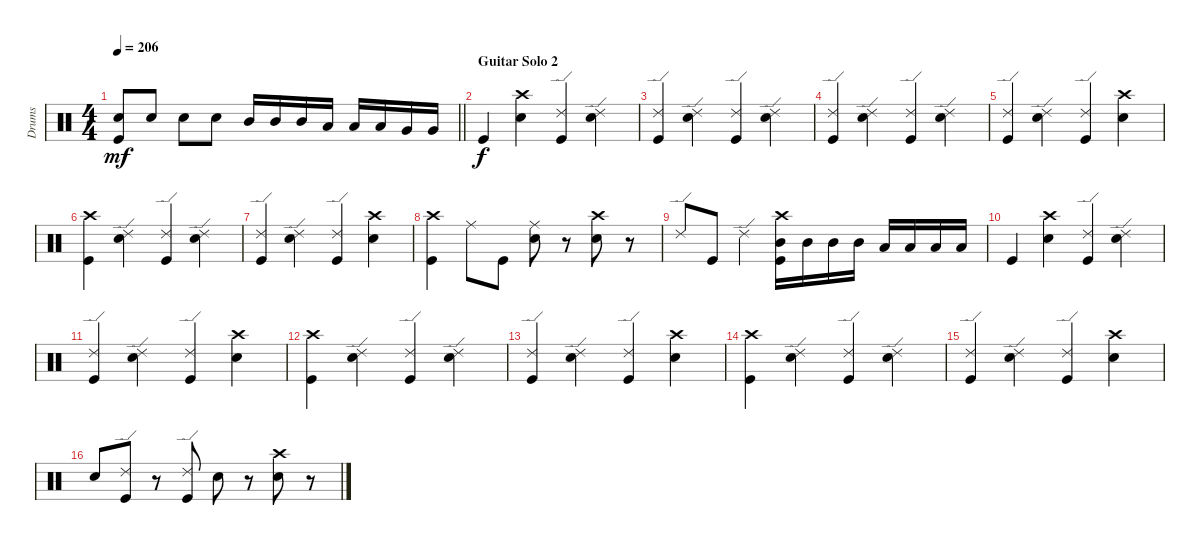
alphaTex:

\track ("Drums" "Drums") {instrument percussion}
\staff {score}
\articulation defaults
\ts (4 4)
\tempo 206
\clef neutral
\barLineRight lightlight
\ks c
("Electric Snare (hit)" "Kick (hit)").8{dy mf} "Electric Snare (hit)".8 "Electric Snare (hit)".8 "Electric Snare (hit)".8 "Mid Tom (hit)".16 "Mid Tom (hit)".16 "Mid Tom (hit)".16 "Low Tom (hit)".16 "Low Tom (hit)".16 "Low Tom (hit)".16 "Very Low Tom (hit)".16 "Very Low Tom (hit)".16 |
\section ("" "Guitar Solo 2")
"Kick (hit)".4{dy f} ("Crash high (hit)" "Electric Snare (hit)").4 ("Ride (edge) 2" "Kick (hit)").4 ("Ride (edge) 2" "Electric Snare (hit)").4 |
("Ride (edge) 2" "Kick (hit)").4 ("Ride (edge) 2" "Electric Snare (hit)").4 ("Ride (edge) 2" "Kick (hit)").4 ("Ride (edge) 2" "Electric Snare (hit)").4 |
("Ride (edge) 2" "Kick (hit)").4 ("Ride (edge) 2" "Electric Snare (hit)").4 ("Ride (edge) 2" "Kick (hit)").4 ("Ride (edge) 2" "Electric Snare (hit)").4 |
("Ride (edge) 2" "Kick (hit)").4 ("Ride (edge) 2" "Electric Snare (hit)").4 ("Ride (edge) 2" "Kick (hit)").4 ("Crash high (hit)" "Electric Snare (hit)").4 |
("Crash high (hit)" "Kick (hit)").4 ("Ride (edge) 2" "Electric Snare (hit)").4 ("Ride (edge) 2" "Kick (hit)").4 ("Ride (edge) 2" "Electric Snare (hit)").4 |
("Ride (edge) 2" "Kick (hit)").4 ("Ride (edge) 2" "Electric Snare (hit)").4 ("Ride (edge) 2" "Kick (hit)").4 ("Crash high (hit)" "Electric Snare (hit)").4 |
("Crash high (hit)" "Kick (hit)").4 "Ride (middle)".8 "Kick (hit)".8 ("Ride (middle)" "Electric Snare (hit)").8 r.8 ("Crash high (hit)" "Electric Snare (hit)").8 r.8 |
"Ride (edge) 2".8 "Kick (hit)".8 "Ride (edge) 2".4 ("Crash high (hit)" "Mid Tom (hit)" "Kick (hit)").16 "Mid Tom (hit)".16 "Mid Tom (hit)".16 "Mid Tom (hit)".16 "Low Tom (hit)".16 "Low Tom (hit)".16 "Low Tom (hit)".16 "Low Tom (hit)".16 |
"Kick (hit)".4 ("Crash high (hit)" "Electric Snare (hit)").4 ("Ride (edge) 2" "Kick (hit)").4 ("Ride (edge) 2" "Electric Snare (hit)").4 |
("Ride (edge) 2" "Kick (hit)").4 ("Ride (edge) 2" "Electric Snare (hit)").4 ("Ride (edge) 2" "Kick (hit)").4 ("Crash high (hit)" "Electric Snare (hit)").4 |
("Crash high (hit)" "Kick (hit)").4 ("Ride (edge) 2" "Electric Snare (hit)").4 ("Ride (edge) 2" "Kick (hit)").4 ("Ride (edge) 2" "Electric Snare (hit)").4 |
("Ride (edge) 2" "Kick (hit)").4 ("Ride (edge) 2" "Electric Snare (hit)").4 ("Ride (edge) 2" "Kick (hit)").4 ("Crash high (hit)" "Electric Snare (hit)").4 |
("Crash high (hit)" "Kick (hit)").4 ("Ride (edge) 2" "Electric Snare (hit)").4 ("Ride (edge) 2" "Kick (hit)").4 ("Ride (edge) 2" "Electric Snare (hit)").4 |
("Ride (edge) 2" "Kick (hit)").4 ("Ride (edge) 2" "Electric Snare (hit)").4 ("Ride (edge) 2" "Kick (hit)").4 ("Crash high (hit)" "Electric Snare (hit)").4 |
"Electric Snare (hit)".8 ("Ride (edge) 2" "Kick (hit)").8 r.8 ("Ride (edge) 2" "Kick (hit)").8 "Electric Snare (hit)".8 r.8 ("Crash high (hit)" "Electric Snare (hit)").8 r.8
